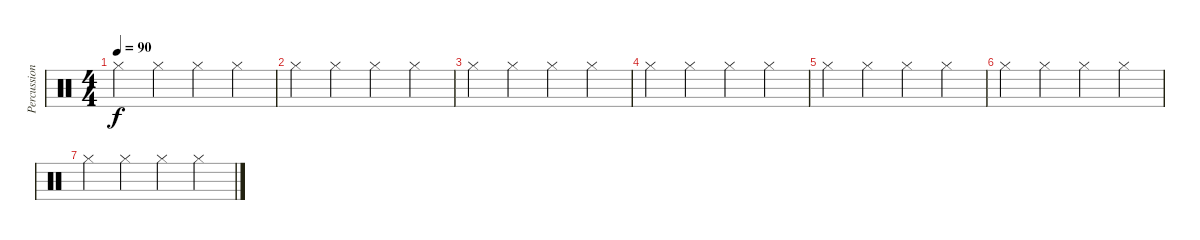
\track ("Percussion" "Percussion") {instrument percussion}
\staff {score}
\articulation defaults
\ts (4 4)
\tempo 90
\clef neutral
\ks c "Hi-Hat (closed)".4{dy f} "Hi-Hat (closed)".4 "Hi-Hat (closed)".4 "Hi-Hat (closed)".4
|
"Hi-Hat (closed)".4 "Hi-Hat (closed)".4 "Hi-Hat (closed)".4 "Hi-Hat (closed)".4 |
"Hi-Hat (closed)".4 "Hi-Hat (closed)".4 "Hi-Hat (closed)".4 "Hi-Hat (closed)".4 |
"Hi-Hat (closed)".4 "Hi-Hat (closed)".4 "Hi-Hat (closed)".4 "Hi-Hat (closed)".4 |
"Hi-Hat (closed)".4 "Hi-Hat (closed)".4 "Hi-Hat (closed)".4 "Hi-Hat (closed)".4 |
"Hi-Hat (closed)".4 "Hi-Hat (closed)".4 "Hi-Hat (closed)".4 "Hi-Hat (closed)".4 |
"Hi-Hat (closed)".4 "Hi-Hat (closed)".4 "Hi-Hat (closed)".4 "Hi-Hat (closed)".4
